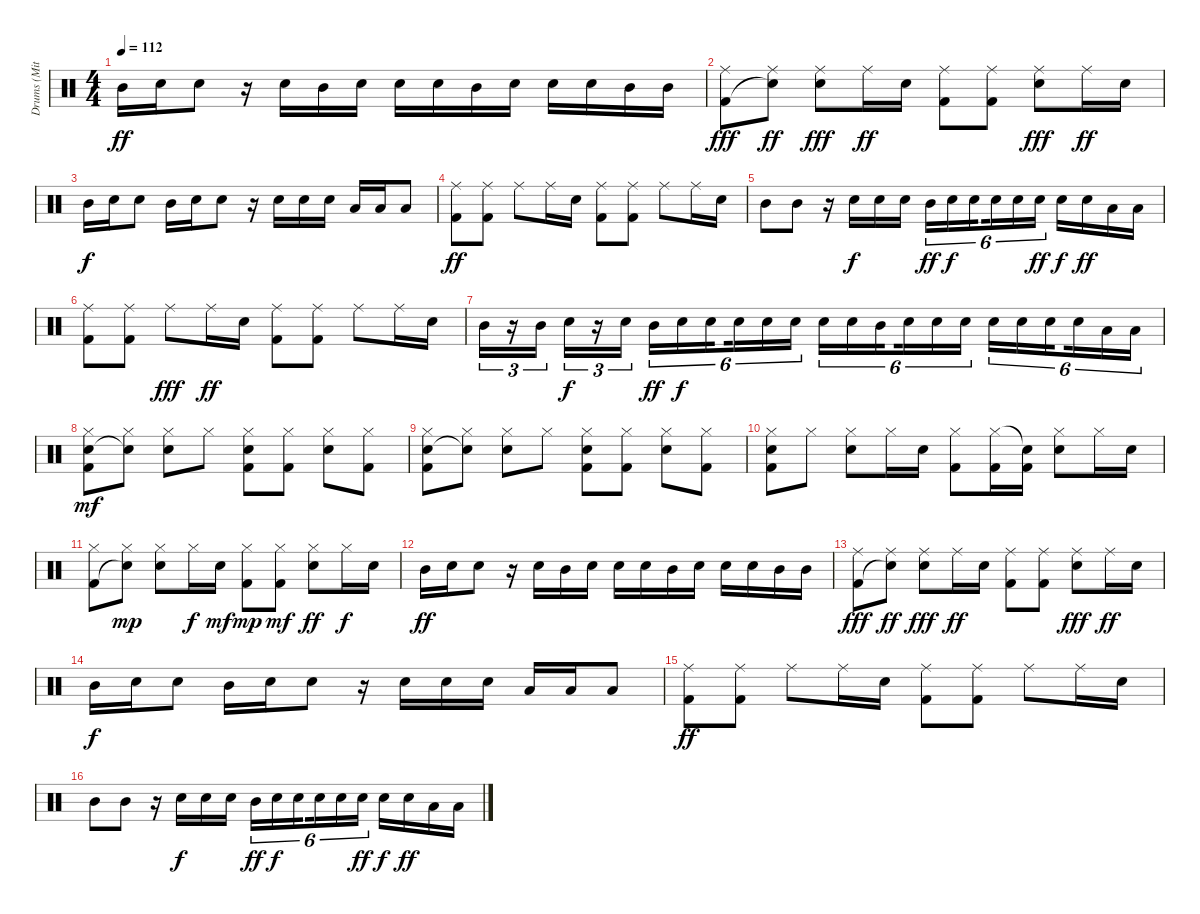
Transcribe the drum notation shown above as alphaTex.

\track ("Drums (Mitch Mitchell)" "Drums (Mit") {instrument percussion}
\staff {score}
\articulation defaults
\ts (4 4)
\tempo 112
\clef neutral
\ks c "Mid Tom (hit)".16{dy ff} "Electric Snare (hit)".16 "Electric Snare (hit)".8
r.16 "Electric Snare (hit)".16 "Mid Tom (hit)".16 "Electric Snare (hit)".16 "Electric Snare (hit)".16 "Electric Snare (hit)".16 "Mid Tom (hit)".16 "Electric Snare (hit)".16 "Electric Snare (hit)".16 "Electric Snare (hit)".16 "Mid Tom (hit)".16 "Mid Tom (hit)".16 |
("Ride (middle)" "Kick (hit) 2").8{dy fff} ("Ride (middle)" "Snare (hit)"{t}).8{dy ff} ("Ride (middle)" "Electric Snare (hit)").8{dy fff} "Ride (middle)".16{dy ff} "Electric Snare (hit)".16 ("Ride (middle)" "Kick (hit) 2").8 ("Ride (middle)" "Kick (hit) 2").8 ("Ride (middle)" "Electric Snare (hit)").8{dy fff} "Ride (middle)".16{dy ff} "Electric Snare (hit)".16 |
"Mid Tom (hit)".16{dy f} "Electric Snare (hit)".16 "Electric Snare (hit)".8 "Mid Tom (hit)".16 "Electric Snare (hit)".16 "Electric Snare (hit)".8 r.16 "Electric Snare (hit)".16 "Electric Snare (hit)".16 "Electric Snare (hit)".16 "Low Tom (hit)".16 "Low Tom (hit)".16 "Low Tom (hit)".8 |
("Ride (middle)" "Kick (hit) 2").8{dy ff} ("Ride (middle)" "Kick (hit) 2").8 "Ride (middle)".8 "Ride (middle)".16 "Electric Snare (hit)".16 ("Ride (middle)" "Kick (hit) 2").8 ("Ride (middle)" "Kick (hit) 2").8 "Ride (middle)".8 "Ride (middle)".16 "Electric Snare (hit)".16 |
"Mid Tom (hit)".8 "Mid Tom (hit)".8 r.16 "Electric Snare (hit)".16{dy f} "Electric Snare (hit)".16 "Electric Snare (hit)".16 "Mid Tom (hit)".16{tu (6 4) dy ff} "Electric Snare (hit)".16{tu (6 4) dy f} "Electric Snare (hit)".16{tu (6 4) beam splitsecondary} "Electric Snare (hit)".16{tu (6 4)} "Electric Snare (hit)".16{tu (6 4)} "Electric Snare (hit)".16{tu (6 4) dy ff} "Electric Snare (hit)".16{dy f} "Electric Snare (hit)".16{dy ff} "Low Tom (hit)".16 "Low Tom (hit)".16 |
("Ride (middle)" "Kick (hit) 2").8 ("Ride (middle)" "Kick (hit) 2").8 "Ride (middle)".8{dy fff} "Ride (middle)".16{dy ff} "Electric Snare (hit)".16 ("Ride (middle)" "Kick (hit) 2").8 ("Ride (middle)" "Kick (hit) 2").8 "Ride (middle)".8 "Ride (middle)".16 "Electric Snare (hit)".16 |
"Mid Tom (hit)".16{tu (3 2)} r.16{tu (3 2)} "Mid Tom (hit)".16{tu (3 2)} "Electric Snare (hit)".16{tu (3 2) dy f} r.16{tu (3 2)} "Electric Snare (hit)".16{tu (3 2)} "Mid Tom (hit)".16{tu (6 4) dy ff} "Electric Snare (hit)".16{tu (6 4) dy f} "Electric Snare (hit)".16{tu (6 4) beam splitsecondary} "Electric Snare (hit)".16{tu (6 4)} "Electric Snare (hit)".16{tu (6 4)} "Electric Snare (hit)".16{tu (6 4)} "Electric Snare (hit)".16{tu (6 4)} "Electric Snare (hit)".16{tu (6 4)} "Mid Tom (hit)".16{tu (6 4) beam splitsecondary} "Electric Snare (hit)".16{tu (6 4)} "Electric Snare (hit)".16{tu (6 4)} "Electric Snare (hit)".16{tu (6 4)} "Electric Snare (hit)".16{tu (6 4)} "Electric Snare (hit)".16{tu (6 4)} "Electric Snare (hit)".16{tu (6 4) beam splitsecondary} "Electric Snare (hit)".16{tu (6 4)} "Low Tom (hit)".16{tu (6 4)} "Low Tom (hit)".16{tu (6 4)} |
("Hi-Hat (closed)" "Electric Snare (hit)" "Kick (hit) 2").8{dy mf} ("Hi-Hat (closed)" "Snare (hit)"{t}).8 ("Hi-Hat (closed)" "Electric Snare (hit)").8 "Hi-Hat (closed)".8 ("Hi-Hat (closed)" "Electric Snare (hit)" "Kick (hit) 2").8 ("Hi-Hat (closed)" "Kick (hit) 2").8 ("Hi-Hat (closed)" "Electric Snare (hit)").8 ("Hi-Hat (closed)" "Kick (hit) 2").8 |
("Hi-Hat (closed)" "Electric Snare (hit)" "Kick (hit) 2").8 ("Hi-Hat (closed)" "Snare (hit)"{t}).8 ("Hi-Hat (closed)" "Electric Snare (hit)").8 "Hi-Hat (closed)".8 ("Hi-Hat (closed)" "Electric Snare (hit)" "Kick (hit) 2").8 ("Hi-Hat (closed)" "Kick (hit) 2").8 ("Hi-Hat (closed)" "Electric Snare (hit)").8 ("Hi-Hat (closed)" "Kick (hit) 2").8 |
("Hi-Hat (closed)" "Electric Snare (hit)" "Kick (hit) 2").8 "Hi-Hat (closed)".8 ("Hi-Hat (closed)" "Electric Snare (hit)").8 "Hi-Hat (closed)".16 "Electric Snare (hit)".16 ("Hi-Hat (closed)" "Kick (hit) 2").8 ("Hi-Hat (closed)" "Kick (hit) 2").16 ("Snare (hit)"{t} "Kick (hit) 2").16 ("Hi-Hat (closed)" "Electric Snare (hit)").8 "Hi-Hat (closed)".16 "Electric Snare (hit)".16 |
("Hi-Hat (closed)" "Kick (hit) 2").8 ("Hi-Hat (closed)" "Snare (hit)"{t}).8{dy mp} ("Hi-Hat (closed)" "Electric Snare (hit)").8 "Hi-Hat (closed)".16{dy f} "Electric Snare (hit)".16{dy mf} ("Hi-Hat (closed)" "Kick (hit) 2").8{dy mp} ("Hi-Hat (closed)" "Kick (hit) 2").8{dy mf} ("Hi-Hat (closed)" "Electric Snare (hit)").8{dy ff} "Hi-Hat (closed)".16{dy f} "Electric Snare (hit)".16 |
"Mid Tom (hit)".16{dy ff} "Electric Snare (hit)".16 "Electric Snare (hit)".8 r.16 "Electric Snare (hit)".16 "Mid Tom (hit)".16 "Electric Snare (hit)".16 "Electric Snare (hit)".16 "Electric Snare (hit)".16 "Mid Tom (hit)".16 "Electric Snare (hit)".16 "Electric Snare (hit)".16 "Electric Snare (hit)".16 "Mid Tom (hit)".16 "Mid Tom (hit)".16 |
("Ride (middle)" "Kick (hit) 2").8{dy fff} ("Ride (middle)" "Snare (hit)"{t}).8{dy ff} ("Ride (middle)" "Electric Snare (hit)").8{dy fff} "Ride (middle)".16{dy ff} "Electric Snare (hit)".16 ("Ride (middle)" "Kick (hit) 2").8 ("Ride (middle)" "Kick (hit) 2").8 ("Ride (middle)" "Electric Snare (hit)").8{dy fff} "Ride (middle)".16{dy ff} "Electric Snare (hit)".16 |
"Mid Tom (hit)".16{dy f} "Electric Snare (hit)".16 "Electric Snare (hit)".8 "Mid Tom (hit)".16 "Electric Snare (hit)".16 "Electric Snare (hit)".8 r.16 "Electric Snare (hit)".16 "Electric Snare (hit)".16 "Electric Snare (hit)".16 "Low Tom (hit)".16 "Low Tom (hit)".16 "Low Tom (hit)".8 |
("Ride (middle)" "Kick (hit) 2").8{dy ff} ("Ride (middle)" "Kick (hit) 2").8 "Ride (middle)".8 "Ride (middle)".16 "Electric Snare (hit)".16 ("Ride (middle)" "Kick (hit) 2").8 ("Ride (middle)" "Kick (hit) 2").8 "Ride (middle)".8 "Ride (middle)".16 "Electric Snare (hit)".16 |
"Mid Tom (hit)".8 "Mid Tom (hit)".8 r.16 "Electric Snare (hit)".16{dy f} "Electric Snare (hit)".16 "Electric Snare (hit)".16 "Mid Tom (hit)".16{tu (6 4) dy ff} "Electric Snare (hit)".16{tu (6 4) dy f} "Electric Snare (hit)".16{tu (6 4) beam splitsecondary} "Electric Snare (hit)".16{tu (6 4)} "Electric Snare (hit)".16{tu (6 4)} "Electric Snare (hit)".16{tu (6 4) dy ff} "Electric Snare (hit)".16{dy f} "Electric Snare (hit)".16{dy ff} "Low Tom (hit)".16 "Low Tom (hit)".16
